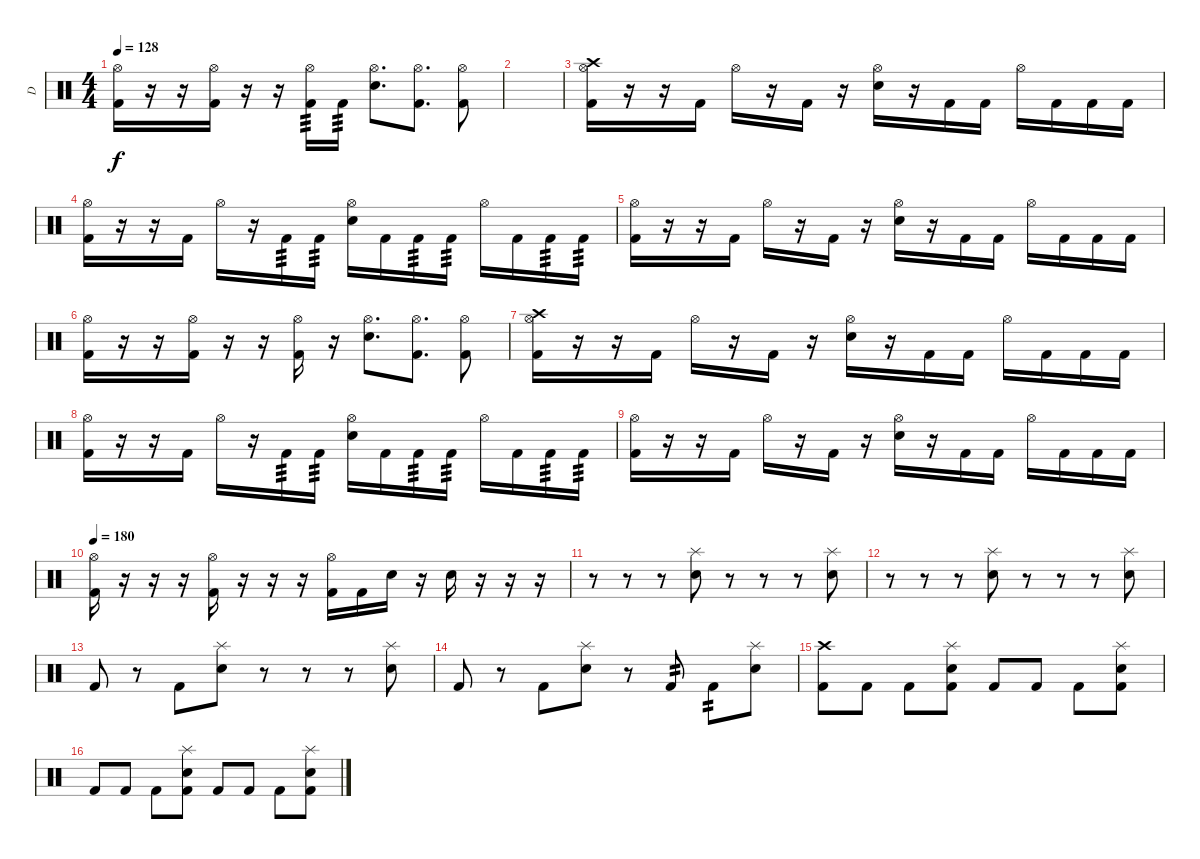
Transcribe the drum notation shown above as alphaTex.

\track ("D" "D") {instrument percussion}
\staff {score}
\articulation defaults
\ts (4 4)
\tempo 128
\clef neutral
\ks c
("Kick (hit) 2" "Hi-Hat (open)").16{dy f} r.16 r.16 ("Kick (hit) 2" "Hi-Hat (open)").16 r.16 r.16 ("Kick (hit) 2" "Hi-Hat (open)").16{tp 3} "Kick (hit) 2".16{tp 3} ("Electric Snare (hit)" "Hi-Hat (open)").8{d} ("Kick (hit) 2" "Hi-Hat (open)").8{d} ("Kick (hit) 2" "Hi-Hat (open)").8 |
|
("Crash high (hit)" "Kick (hit) 2" "Hi-Hat (open)").16 r.16 r.16 "Kick (hit) 2".16 "Hi-Hat (open)".16 r.16 "Kick (hit) 2".16 r.16 ("Electric Snare (hit)" "Hi-Hat (open)").16 r.16 "Kick (hit) 2".16 "Kick (hit) 2".16 "Hi-Hat (open)".16 "Kick (hit) 2".16 "Kick (hit) 2".16 "Kick (hit) 2".16 |
("Kick (hit) 2" "Hi-Hat (open)").16 r.16 r.16 "Kick (hit) 2".16 "Hi-Hat (open)".16 r.16 "Kick (hit) 2".16{tp 3} "Kick (hit) 2".16{tp 3} ("Electric Snare (hit)" "Hi-Hat (open)").16 "Kick (hit) 2".16 "Kick (hit) 2".16{tp 3} "Kick (hit) 2".16{tp 3} "Hi-Hat (open)".16 "Kick (hit) 2".16 "Kick (hit) 2".16{tp 3} "Kick (hit) 2".16{tp 3} |
("Kick (hit) 2" "Hi-Hat (open)").16 r.16 r.16 "Kick (hit) 2".16 "Hi-Hat (open)".16 r.16 "Kick (hit) 2".16 r.16 ("Electric Snare (hit)" "Hi-Hat (open)").16 r.16 "Kick (hit) 2".16 "Kick (hit) 2".16 "Hi-Hat (open)".16 "Kick (hit) 2".16 "Kick (hit) 2".16 "Kick (hit) 2".16 |
("Kick (hit) 2" "Hi-Hat (open)").16 r.16 r.16 ("Kick (hit) 2" "Hi-Hat (open)").16 r.16 r.16 ("Kick (hit) 2" "Hi-Hat (open)").16 r.16 ("Electric Snare (hit)" "Hi-Hat (open)").8{d} ("Kick (hit) 2" "Hi-Hat (open)").8{d} ("Kick (hit) 2" "Hi-Hat (open)").8 |
("Crash high (hit)" "Kick (hit) 2" "Hi-Hat (open)").16 r.16 r.16 "Kick (hit) 2".16 "Hi-Hat (open)".16 r.16 "Kick (hit) 2".16 r.16 ("Electric Snare (hit)" "Hi-Hat (open)").16 r.16 "Kick (hit) 2".16 "Kick (hit) 2".16 "Hi-Hat (open)".16 "Kick (hit) 2".16 "Kick (hit) 2".16 "Kick (hit) 2".16 |
("Kick (hit) 2" "Hi-Hat (open)").16 r.16 r.16 "Kick (hit) 2".16 "Hi-Hat (open)".16 r.16 "Kick (hit) 2".16{tp 3} "Kick (hit) 2".16{tp 3} ("Electric Snare (hit)" "Hi-Hat (open)").16 "Kick (hit) 2".16 "Kick (hit) 2".16{tp 3} "Kick (hit) 2".16{tp 3} "Hi-Hat (open)".16 "Kick (hit) 2".16 "Kick (hit) 2".16{tp 3} "Kick (hit) 2".16{tp 3} |
("Kick (hit) 2" "Hi-Hat (open)").16 r.16 r.16 "Kick (hit) 2".16 "Hi-Hat (open)".16 r.16 "Kick (hit) 2".16 r.16 ("Electric Snare (hit)" "Hi-Hat (open)").16 r.16 "Kick (hit) 2".16 "Kick (hit) 2".16 "Hi-Hat (open)".16 "Kick (hit) 2".16 "Kick (hit) 2".16 "Kick (hit) 2".16 |
\tempo 180
("Kick (hit) 2" "Hi-Hat (open)").16 r.16 r.16 r.16 ("Kick (hit) 2" "Hi-Hat (open)").16 r.16 r.16 r.16 ("Kick (hit) 2" "Hi-Hat (open)").16 "Kick (hit) 2".16 "Electric Snare (hit)".16 r.16 "Electric Snare (hit)".16 r.16 r.16 r.16 |
r.8 r.8 r.8 ("Electric Snare (hit)" "Splash (hit)").8 r.8 r.8 r.8 ("Electric Snare (hit)" "Splash (hit)").8 |
r.8 r.8 r.8 ("Electric Snare (hit)" "Splash (hit)").8 r.8 r.8 r.8 ("Electric Snare (hit)" "Splash (hit)").8 |
"Kick (hit) 2".8 r.8 "Kick (hit) 2".8 ("Electric Snare (hit)" "Splash (hit)").8 r.8 r.8 r.8 ("Electric Snare (hit)" "Splash (hit)").8 |
"Kick (hit) 2".8 r.8 "Kick (hit) 2".8 ("Electric Snare (hit)" "Splash (hit)").8 r.8 "Kick (hit) 2".8{tp 2} "Kick (hit) 2".8{tp 2} ("Electric Snare (hit)" "Splash (hit)").8 |
("Crash high (hit)" "Kick (hit) 2").8 "Kick (hit) 2".8 "Kick (hit) 2".8 ("Electric Snare (hit)" "Kick (hit) 2" "Splash (hit)").8 "Kick (hit) 2".8 "Kick (hit) 2".8 "Kick (hit) 2".8 ("Electric Snare (hit)" "Kick (hit) 2" "Splash (hit)").8 |
"Kick (hit) 2".8 "Kick (hit) 2".8 "Kick (hit) 2".8 ("Electric Snare (hit)" "Kick (hit) 2" "Splash (hit)").8 "Kick (hit) 2".8 "Kick (hit) 2".8 "Kick (hit) 2".8 ("Electric Snare (hit)" "Kick (hit) 2" "Splash (hit)").8
